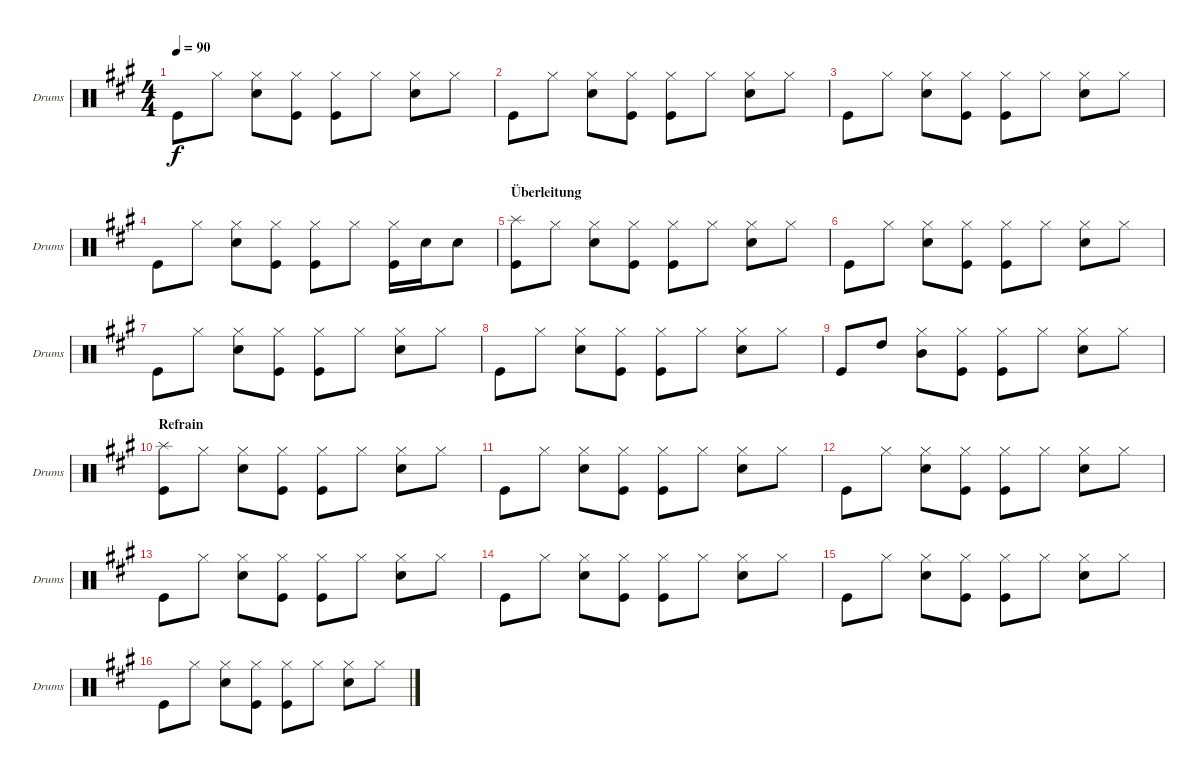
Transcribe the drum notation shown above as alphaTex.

\bracketExtendMode groupsimilarinstruments
\singleTrackTrackNamePolicy allsystems
\multiTrackTrackNamePolicy allsystems
\firstSystemTrackNameOrientation horizontal
\otherSystemsTrackNameOrientation horizontal
\track ("drum" "Drums") {instrument percussion}
\staff {score}
\articulation defaults
\ts (4 4)
\scale
0.244444
\tempo 90
\accidentals auto
\clef neutral
\ottava regular
\simile none
\ks a "Kick (hit)".8{dy f} "Hi-Hat (closed)".8
("Hi-Hat (closed)" "Snare (hit) 2").8 ("Hi-Hat (closed)" "Kick (hit)").8 ("Hi-Hat (closed)" "Kick (hit)").8 "Hi-Hat (closed)".8 ("Hi-Hat (closed)" "Snare (hit) 2").8 "Hi-Hat (closed)".8 |
\scale
0.377778 "Kick (hit)".8 "Hi-Hat (closed)".8 ("Hi-Hat (closed)" "Snare (hit) 2").8 ("Hi-Hat (closed)" "Kick (hit)").8 ("Hi-Hat (closed)" "Kick (hit)").8 "Hi-Hat (closed)".8 ("Hi-Hat (closed)" "Snare (hit) 2").8 "Hi-Hat (closed)".8 |
\scale
0.314286 "Kick (hit)".8 "Hi-Hat (closed)".8 ("Hi-Hat (closed)" "Snare (hit) 2").8 ("Hi-Hat (closed)" "Kick (hit)").8 ("Hi-Hat (closed)" "Kick (hit)").8 "Hi-Hat (closed)".8 ("Hi-Hat (closed)" "Snare (hit) 2").8 "Hi-Hat (closed)".8 |
\scale
0.485714 "Kick (hit)".8 "Hi-Hat (closed)".8 ("Hi-Hat (closed)" "Snare (hit) 2").8 ("Hi-Hat (closed)" "Kick (hit)").8 ("Hi-Hat (closed)" "Kick (hit)").8 "Hi-Hat (closed)".8 ("Hi-Hat (closed)" "Kick (hit)").16 "Snare (hit) 2".16 "Snare (hit) 2".8 |
\section ("" "Überleitung")
\scale
0.2 ("Kick (hit)" "Splash (hit)").8 "Hi-Hat (closed)".8 ("Hi-Hat (closed)" "Snare (hit) 2").8 ("Hi-Hat (closed)" "Kick (hit)").8 ("Hi-Hat (closed)" "Kick (hit)").8 "Hi-Hat (closed)".8 ("Hi-Hat (closed)" "Snare (hit) 2").8 "Hi-Hat (closed)".8 |
\scale
0.28 "Kick (hit)".8 "Hi-Hat (closed)".8 ("Hi-Hat (closed)" "Snare (hit) 2").8 ("Hi-Hat (closed)" "Kick (hit)").8 ("Hi-Hat (closed)" "Kick (hit)").8 "Hi-Hat (closed)".8 ("Hi-Hat (closed)" "Snare (hit) 2").8 "Hi-Hat (closed)".8 |
\scale
0.28 "Kick (hit)".8 "Hi-Hat (closed)".8 ("Hi-Hat (closed)" "Snare (hit) 2").8 ("Hi-Hat (closed)" "Kick (hit)").8 ("Hi-Hat (closed)" "Kick (hit)").8 "Hi-Hat (closed)".8 ("Hi-Hat (closed)" "Snare (hit) 2").8 "Hi-Hat (closed)".8 |
\scale
0.44 "Kick (hit)".8 "Hi-Hat (closed)".8 ("Hi-Hat (closed)" "Snare (hit) 2").8 ("Hi-Hat (closed)" "Kick (hit)").8 ("Hi-Hat (closed)" "Kick (hit)").8 "Hi-Hat (closed)".8 ("Hi-Hat (closed)" "Snare (hit) 2").8 "Hi-Hat (closed)".8 |
\scale
0.405405 "Kick (hit)".8 "High Tom (hit)".8 ("Hi-Hat (closed)" "Mid Tom (hit)").8 ("Hi-Hat (closed)" "Kick (hit)").8 ("Hi-Hat (closed)" "Kick (hit)").8 "Hi-Hat (closed)".8 ("Hi-Hat (closed)" "Snare (hit) 2").8 "Hi-Hat (closed)".8 |
\section ("" "Refrain")
\scale
0.297297 ("Kick (hit)" "Splash (hit)").8 "Hi-Hat (closed)".8 ("Hi-Hat (closed)" "Snare (hit) 2").8 ("Hi-Hat (closed)" "Kick (hit)").8 ("Hi-Hat (closed)" "Kick (hit)").8 "Hi-Hat (closed)".8 ("Hi-Hat (closed)" "Snare (hit) 2").8 "Hi-Hat (closed)".8 |
\scale
0.297297 "Kick (hit)".8 "Hi-Hat (closed)".8 ("Hi-Hat (closed)" "Snare (hit) 2").8 ("Hi-Hat (closed)" "Kick (hit)").8 ("Hi-Hat (closed)" "Kick (hit)").8 "Hi-Hat (closed)".8 ("Hi-Hat (closed)" "Snare (hit) 2").8 "Hi-Hat (closed)".8 |
\scale
0.333333 "Kick (hit)".8 "Hi-Hat (closed)".8 ("Hi-Hat (closed)" "Snare (hit) 2").8 ("Hi-Hat (closed)" "Kick (hit)").8 ("Hi-Hat (closed)" "Kick (hit)").8 "Hi-Hat (closed)".8 ("Hi-Hat (closed)" "Snare (hit) 2").8 "Hi-Hat (closed)".8 |
\scale
0.333333 "Kick (hit)".8 "Hi-Hat (closed)".8 ("Hi-Hat (closed)" "Snare (hit) 2").8 ("Hi-Hat (closed)" "Kick (hit)").8 ("Hi-Hat (closed)" "Kick (hit)").8 "Hi-Hat (closed)".8 ("Hi-Hat (closed)" "Snare (hit) 2").8 "Hi-Hat (closed)".8 |
\scale
0.333333 "Kick (hit)".8 "Hi-Hat (closed)".8 ("Hi-Hat (closed)" "Snare (hit) 2").8 ("Hi-Hat (closed)" "Kick (hit)").8 ("Hi-Hat (closed)" "Kick (hit)").8 "Hi-Hat (closed)".8 ("Hi-Hat (closed)" "Snare (hit) 2").8 "Hi-Hat (closed)".8 |
\scale
0.424437 "Kick (hit)".8 "Hi-Hat (closed)".8 ("Hi-Hat (closed)" "Snare (hit) 2").8 ("Hi-Hat (closed)" "Kick (hit)").8 ("Hi-Hat (closed)" "Kick (hit)").8 "Hi-Hat (closed)".8 ("Hi-Hat (closed)" "Snare (hit) 2").8 "Hi-Hat (closed)".8 |
\scale
0.424437 "Kick (hit)".8 "Hi-Hat (closed)".8 ("Hi-Hat (closed)" "Snare (hit) 2").8 ("Hi-Hat (closed)" "Kick (hit)").8 ("Hi-Hat (closed)" "Kick (hit)").8 "Hi-Hat (closed)".8 ("Hi-Hat (closed)" "Snare (hit) 2").8 "Hi-Hat (closed)".8
